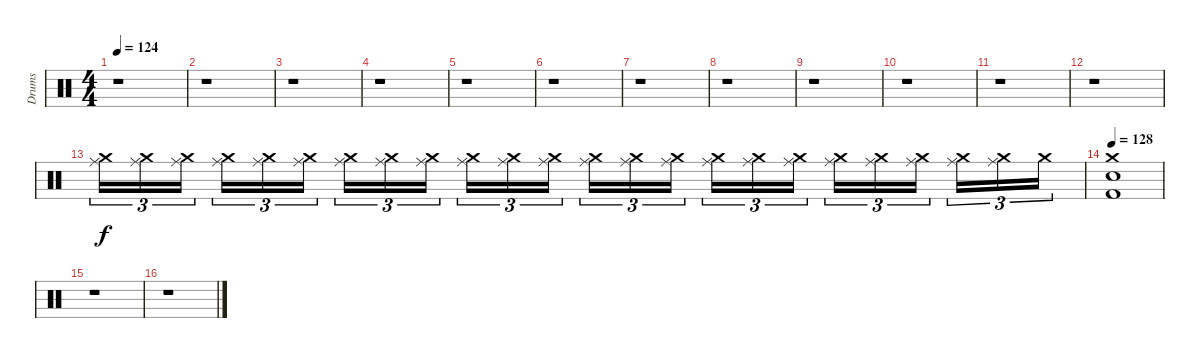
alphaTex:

\track ("Drums" "Drums") {instrument percussion}
\staff {score}
\articulation defaults
\ts (4 4)
\tempo 124
\clef neutral
\ks c
r.1{dy f} |
r.1 |
r.1 |
r.1 |
r.1 |
r.1 |
r.1 |
r.1 |
r.1 |
r.1 |
r.1 |
r.1{volume 0} |
("Ride (middle)" "Crash medium (hit)").16{tu (3 2) volume 16} ("Ride (middle)" "Crash medium (hit)").16{tu (3 2)} ("Ride (middle)" "Crash medium (hit)").16{tu (3 2)} ("Ride (middle)" "Crash medium (hit)").16{tu (3 2)} ("Ride (middle)" "Crash medium (hit)").16{tu (3 2)} ("Ride (middle)" "Crash medium (hit)").16{tu (3 2)} ("Ride (middle)" "Crash medium (hit)").16{tu (3 2)} ("Ride (middle)" "Crash medium (hit)").16{tu (3 2)} ("Ride (middle)" "Crash medium (hit)").16{tu (3 2)} ("Ride (middle)" "Crash medium (hit)").16{tu (3 2)} ("Ride (middle)" "Crash medium (hit)").16{tu (3 2)} ("Ride (middle)" "Crash medium (hit)").16{tu (3 2)} ("Ride (middle)" "Crash medium (hit)").16{tu (3 2)} ("Ride (middle)" "Crash medium (hit)").16{tu (3 2)} ("Ride (middle)" "Crash medium (hit)").16{tu (3 2)} ("Ride (middle)" "Crash medium (hit)").16{tu (3 2)} ("Ride (middle)" "Crash medium (hit)").16{tu (3 2)} ("Ride (middle)" "Crash medium (hit)").16{tu (3 2)} ("Ride (middle)" "Crash medium (hit)").16{tu (3 2)} ("Ride (middle)" "Crash medium (hit)").16{tu (3 2)} ("Ride (middle)" "Crash medium (hit)").16{tu (3 2)} ("Ride (middle)" "Crash medium (hit)").16{tu (3 2)} ("Ride (middle)" "Crash medium (hit)").16{tu (3 2)} "Crash medium (hit)".16{tu (3 2)} |
\tempo 130
\tempo 128
("Crash medium (hit)" "Electric Snare (hit)" "Kick (hit) 2").1 |
r.1 |
r.1
